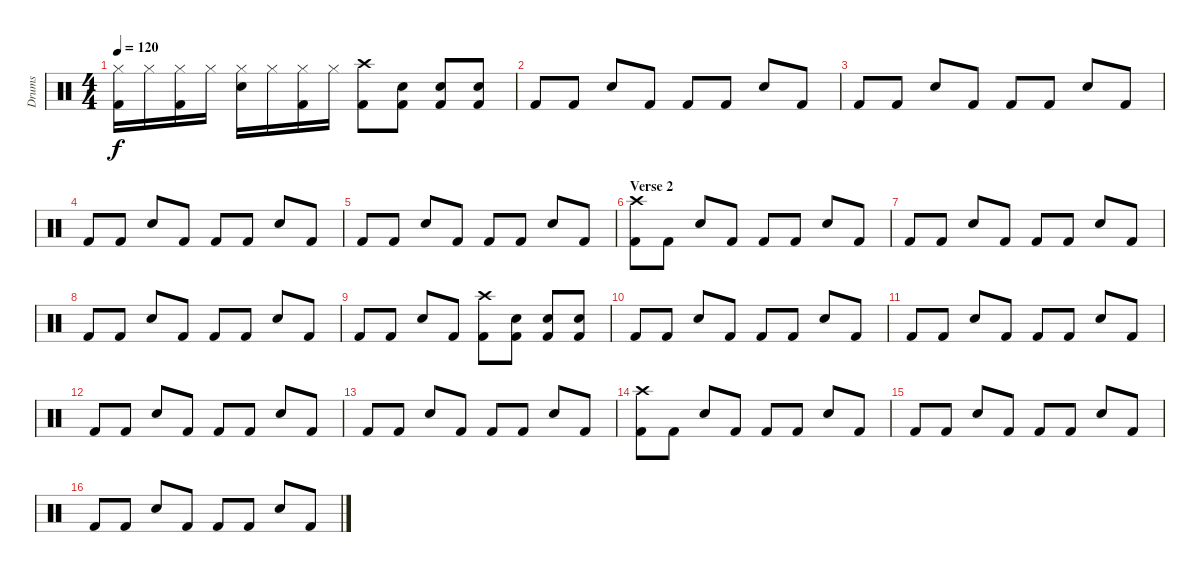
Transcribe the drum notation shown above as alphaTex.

\track ("Drums" "Drums") {instrument percussion}
\staff {score}
\articulation defaults
\ts (4 4)
\tempo 120
\clef neutral
\ks c
("Hi-Hat (closed)" "Kick (hit) 2").16{dy f} "Hi-Hat (closed)".16 ("Hi-Hat (closed)" "Kick (hit) 2").16 "Hi-Hat (closed)".16 ("Hi-Hat (closed)" "Snare (hit) 2").16 "Hi-Hat (closed)".16 ("Hi-Hat (closed)" "Kick (hit) 2").16 "Hi-Hat (closed)".16 ("Crash high (hit)" "Kick (hit) 2").8 ("Snare (hit) 2" "Kick (hit) 2").8 ("Snare (hit) 2" "Kick (hit) 2").8 ("Snare (hit) 2" "Kick (hit) 2").8 |
"Kick (hit) 2".8 "Kick (hit) 2".8 "Snare (hit) 2".8 "Kick (hit) 2".8 "Kick (hit) 2".8 "Kick (hit) 2".8 "Snare (hit) 2".8 "Kick (hit) 2".8 |
"Kick (hit) 2".8 "Kick (hit) 2".8 "Snare (hit) 2".8 "Kick (hit) 2".8 "Kick (hit) 2".8 "Kick (hit) 2".8 "Snare (hit) 2".8 "Kick (hit) 2".8 |
"Kick (hit) 2".8 "Kick (hit) 2".8 "Snare (hit) 2".8 "Kick (hit) 2".8 "Kick (hit) 2".8 "Kick (hit) 2".8 "Snare (hit) 2".8 "Kick (hit) 2".8 |
"Kick (hit) 2".8 "Kick (hit) 2".8 "Snare (hit) 2".8 "Kick (hit) 2".8 "Kick (hit) 2".8 "Kick (hit) 2".8 "Snare (hit) 2".8 "Kick (hit) 2".8 |
\section ("" "Verse 2")
("Crash high (hit)" "Kick (hit) 2").8 "Kick (hit) 2".8 "Snare (hit) 2".8 "Kick (hit) 2".8 "Kick (hit) 2".8 "Kick (hit) 2".8 "Snare (hit) 2".8 "Kick (hit) 2".8 |
"Kick (hit) 2".8 "Kick (hit) 2".8 "Snare (hit) 2".8 "Kick (hit) 2".8 "Kick (hit) 2".8 "Kick (hit) 2".8 "Snare (hit) 2".8 "Kick (hit) 2".8 |
"Kick (hit) 2".8 "Kick (hit) 2".8 "Snare (hit) 2".8 "Kick (hit) 2".8 "Kick (hit) 2".8 "Kick (hit) 2".8 "Snare (hit) 2".8 "Kick (hit) 2".8 |
"Kick (hit) 2".8 "Kick (hit) 2".8 "Snare (hit) 2".8 "Kick (hit) 2".8 ("Crash high (hit)" "Kick (hit) 2").8 ("Snare (hit) 2" "Kick (hit) 2").8 ("Snare (hit) 2" "Kick (hit) 2").8 ("Snare (hit) 2" "Kick (hit) 2").8 |
"Kick (hit) 2".8 "Kick (hit) 2".8 "Snare (hit) 2".8 "Kick (hit) 2".8 "Kick (hit) 2".8 "Kick (hit) 2".8 "Snare (hit) 2".8 "Kick (hit) 2".8 |
"Kick (hit) 2".8 "Kick (hit) 2".8 "Snare (hit) 2".8 "Kick (hit) 2".8 "Kick (hit) 2".8 "Kick (hit) 2".8 "Snare (hit) 2".8 "Kick (hit) 2".8 |
"Kick (hit) 2".8 "Kick (hit) 2".8 "Snare (hit) 2".8 "Kick (hit) 2".8 "Kick (hit) 2".8 "Kick (hit) 2".8 "Snare (hit) 2".8 "Kick (hit) 2".8 |
"Kick (hit) 2".8 "Kick (hit) 2".8 "Snare (hit) 2".8 "Kick (hit) 2".8 "Kick (hit) 2".8 "Kick (hit) 2".8 "Snare (hit) 2".8 "Kick (hit) 2".8 |
("Crash high (hit)" "Kick (hit) 2").8 "Kick (hit) 2".8 "Snare (hit) 2".8 "Kick (hit) 2".8 "Kick (hit) 2".8 "Kick (hit) 2".8 "Snare (hit) 2".8 "Kick (hit) 2".8 |
"Kick (hit) 2".8 "Kick (hit) 2".8 "Snare (hit) 2".8 "Kick (hit) 2".8 "Kick (hit) 2".8 "Kick (hit) 2".8 "Snare (hit) 2".8 "Kick (hit) 2".8 |
"Kick (hit) 2".8 "Kick (hit) 2".8 "Snare (hit) 2".8 "Kick (hit) 2".8 "Kick (hit) 2".8 "Kick (hit) 2".8 "Snare (hit) 2".8 "Kick (hit) 2".8
